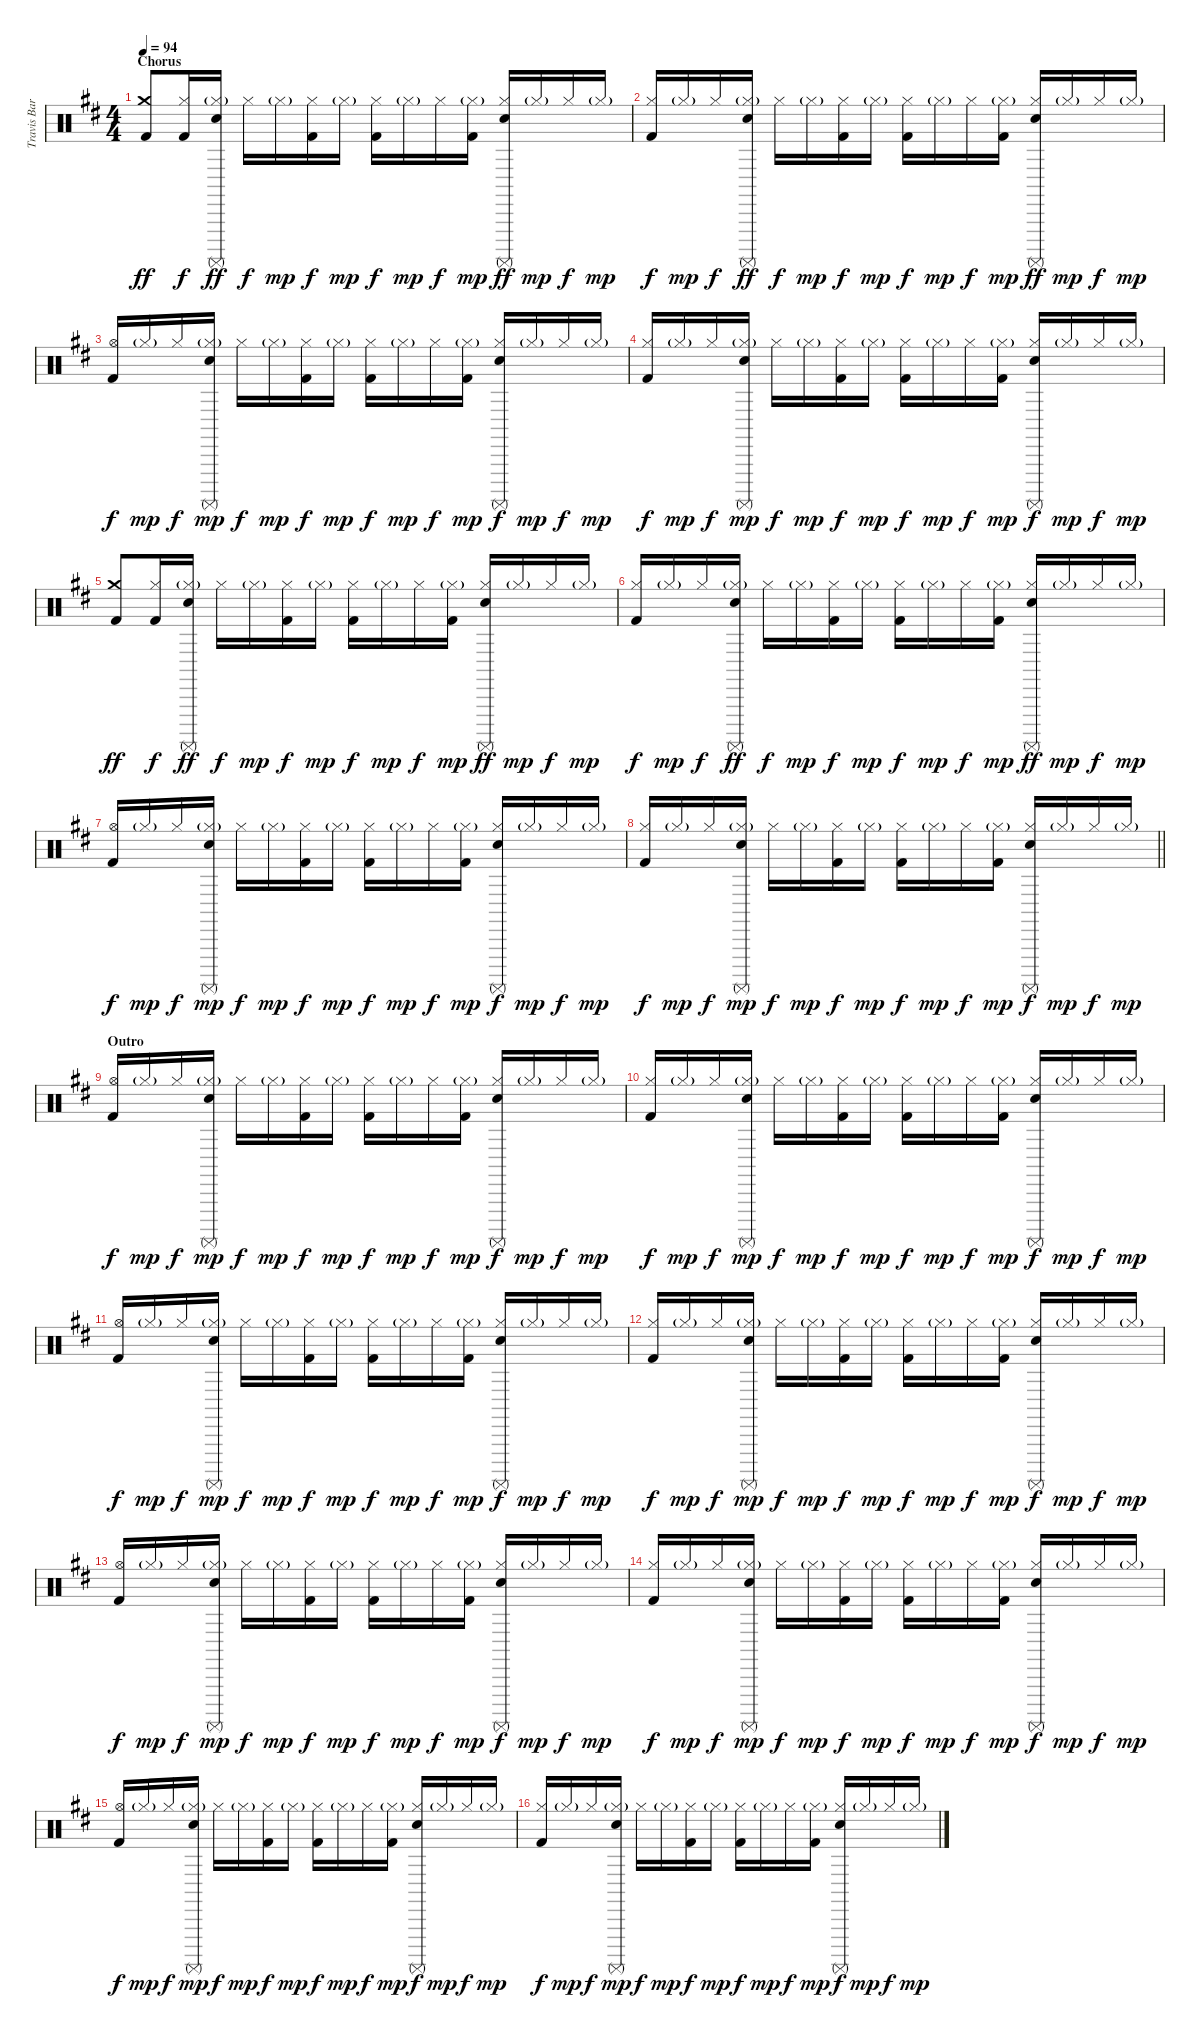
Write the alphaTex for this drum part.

\track ("Travis Barker" "Travis Bar") {instrument percussion}
\staff {score}
\articulation defaults
\ts (4 4)
\section ("" "Chorus")
\tempo 94
\clef neutral
\ks d
("Crash medium (hit)" "Kick (hit) 2").8{dy ff} ("Hi-Hat (closed)" "Kick (hit) 2").16{dy f} ("Hi-Hat (closed)"{g} "Electric Snare (hit)" "Surdo (mute)").16{dy ff} "Hi-Hat (closed)".16{dy f} "Hi-Hat (closed)"{g}.16{dy mp} ("Hi-Hat (closed)" "Kick (hit) 2").16{dy f} "Hi-Hat (closed)"{g}.16{dy mp} ("Hi-Hat (closed)" "Kick (hit) 2").16{dy f} "Hi-Hat (closed)"{g}.16{dy mp} "Hi-Hat (closed)".16{dy f} ("Hi-Hat (closed)"{g} "Kick (hit) 2").16{dy mp} ("Hi-Hat (closed)" "Electric Snare (hit)" "Surdo (mute)").16{dy ff} "Hi-Hat (closed)"{g}.16{dy mp} "Hi-Hat (closed)".16{dy f} "Hi-Hat (closed)"{g}.16{dy mp} |
("Hi-Hat (closed)" "Kick (hit) 2").16{dy f} "Hi-Hat (closed)"{g}.16{dy mp} "Hi-Hat (closed)".16{dy f} ("Hi-Hat (closed)"{g} "Electric Snare (hit)" "Surdo (mute)").16{dy ff} "Hi-Hat (closed)".16{dy f} "Hi-Hat (closed)"{g}.16{dy mp} ("Hi-Hat (closed)" "Kick (hit) 2").16{dy f} "Hi-Hat (closed)"{g}.16{dy mp} ("Hi-Hat (closed)" "Kick (hit) 2").16{dy f} "Hi-Hat (closed)"{g}.16{dy mp} "Hi-Hat (closed)".16{dy f} ("Hi-Hat (closed)"{g} "Kick (hit) 2").16{dy mp} ("Hi-Hat (closed)" "Electric Snare (hit)" "Surdo (mute)").16{dy ff} "Hi-Hat (closed)"{g}.16{dy mp} "Hi-Hat (closed)".16{dy f} "Hi-Hat (closed)"{g}.16{dy mp} |
("Hi-Hat (open)" "Kick (hit) 2").16{dy f} "Hi-Hat (closed)"{g}.16{dy mp} "Hi-Hat (closed)".16{dy f} ("Hi-Hat (closed)"{g} "Electric Snare (hit)" "Surdo (mute)").16{dy mp} "Hi-Hat (closed)".16{dy f} "Hi-Hat (closed)"{g}.16{dy mp} ("Hi-Hat (closed)" "Kick (hit) 2").16{dy f} "Hi-Hat (closed)"{g}.16{dy mp} ("Hi-Hat (closed)" "Kick (hit) 2").16{dy f} "Hi-Hat (closed)"{g}.16{dy mp} "Hi-Hat (closed)".16{dy f} ("Hi-Hat (closed)"{g} "Kick (hit) 2").16{dy mp} ("Hi-Hat (closed)" "Electric Snare (hit)" "Surdo (mute)").16{dy f} "Hi-Hat (closed)"{g}.16{dy mp} "Hi-Hat (closed)".16{dy f} "Hi-Hat (closed)"{g}.16{dy mp} |
("Hi-Hat (closed)" "Kick (hit) 2").16{dy f} "Hi-Hat (closed)"{g}.16{dy mp} "Hi-Hat (closed)".16{dy f} ("Hi-Hat (closed)"{g} "Electric Snare (hit)" "Surdo (mute)").16{dy mp} "Hi-Hat (closed)".16{dy f} "Hi-Hat (closed)"{g}.16{dy mp} ("Hi-Hat (closed)" "Kick (hit) 2").16{dy f} "Hi-Hat (closed)"{g}.16{dy mp} ("Hi-Hat (closed)" "Kick (hit) 2").16{dy f} "Hi-Hat (closed)"{g}.16{dy mp} "Hi-Hat (closed)".16{dy f} ("Hi-Hat (closed)"{g} "Kick (hit) 2").16{dy mp} ("Hi-Hat (closed)" "Electric Snare (hit)" "Surdo (mute)").16{dy f} "Hi-Hat (closed)"{g}.16{dy mp} "Hi-Hat (closed)".16{dy f} "Hi-Hat (closed)"{g}.16{dy mp} |
("Crash medium (hit)" "Kick (hit) 2").8{dy ff} ("Hi-Hat (closed)" "Kick (hit) 2").16{dy f} ("Hi-Hat (closed)"{g} "Electric Snare (hit)" "Surdo (mute)").16{dy ff} "Hi-Hat (closed)".16{dy f} "Hi-Hat (closed)"{g}.16{dy mp} ("Hi-Hat (closed)" "Kick (hit) 2").16{dy f} "Hi-Hat (closed)"{g}.16{dy mp} ("Hi-Hat (closed)" "Kick (hit) 2").16{dy f} "Hi-Hat (closed)"{g}.16{dy mp} "Hi-Hat (closed)".16{dy f} ("Hi-Hat (closed)"{g} "Kick (hit) 2").16{dy mp} ("Hi-Hat (closed)" "Electric Snare (hit)" "Surdo (mute)").16{dy ff} "Hi-Hat (closed)"{g}.16{dy mp} "Hi-Hat (closed)".16{dy f} "Hi-Hat (closed)"{g}.16{dy mp} |
("Hi-Hat (closed)" "Kick (hit) 2").16{dy f} "Hi-Hat (closed)"{g}.16{dy mp} "Hi-Hat (closed)".16{dy f} ("Hi-Hat (closed)"{g} "Electric Snare (hit)" "Surdo (mute)").16{dy ff} "Hi-Hat (closed)".16{dy f} "Hi-Hat (closed)"{g}.16{dy mp} ("Hi-Hat (closed)" "Kick (hit) 2").16{dy f} "Hi-Hat (closed)"{g}.16{dy mp} ("Hi-Hat (closed)" "Kick (hit) 2").16{dy f} "Hi-Hat (closed)"{g}.16{dy mp} "Hi-Hat (closed)".16{dy f} ("Hi-Hat (closed)"{g} "Kick (hit) 2").16{dy mp} ("Hi-Hat (closed)" "Electric Snare (hit)" "Surdo (mute)").16{dy ff} "Hi-Hat (closed)"{g}.16{dy mp} "Hi-Hat (closed)".16{dy f} "Hi-Hat (closed)"{g}.16{dy mp} |
("Hi-Hat (open)" "Kick (hit) 2").16{dy f} "Hi-Hat (closed)"{g}.16{dy mp} "Hi-Hat (closed)".16{dy f} ("Hi-Hat (closed)"{g} "Electric Snare (hit)" "Surdo (mute)").16{dy mp} "Hi-Hat (closed)".16{dy f} "Hi-Hat (closed)"{g}.16{dy mp} ("Hi-Hat (closed)" "Kick (hit) 2").16{dy f} "Hi-Hat (closed)"{g}.16{dy mp} ("Hi-Hat (closed)" "Kick (hit) 2").16{dy f} "Hi-Hat (closed)"{g}.16{dy mp} "Hi-Hat (closed)".16{dy f} ("Hi-Hat (closed)"{g} "Kick (hit) 2").16{dy mp} ("Hi-Hat (closed)" "Electric Snare (hit)" "Surdo (mute)").16{dy f} "Hi-Hat (closed)"{g}.16{dy mp} "Hi-Hat (closed)".16{dy f} "Hi-Hat (closed)"{g}.16{dy mp} |
\barLineRight lightlight
("Hi-Hat (closed)" "Kick (hit) 2").16{dy f} "Hi-Hat (closed)"{g}.16{dy mp} "Hi-Hat (closed)".16{dy f} ("Hi-Hat (closed)"{g} "Electric Snare (hit)" "Surdo (mute)").16{dy mp} "Hi-Hat (closed)".16{dy f} "Hi-Hat (closed)"{g}.16{dy mp} ("Hi-Hat (closed)" "Kick (hit) 2").16{dy f} "Hi-Hat (closed)"{g}.16{dy mp} ("Hi-Hat (closed)" "Kick (hit) 2").16{dy f} "Hi-Hat (closed)"{g}.16{dy mp} "Hi-Hat (closed)".16{dy f} ("Hi-Hat (closed)"{g} "Kick (hit) 2").16{dy mp} ("Hi-Hat (closed)" "Electric Snare (hit)" "Surdo (mute)").16{dy f} "Hi-Hat (closed)"{g}.16{dy mp} "Hi-Hat (closed)".16{dy f} "Hi-Hat (closed)"{g}.16{dy mp} |
\section ("" "Outro")
("Hi-Hat (open)" "Kick (hit) 2").16{dy f} "Hi-Hat (closed)"{g}.16{dy mp} "Hi-Hat (closed)".16{dy f} ("Hi-Hat (closed)"{g} "Electric Snare (hit)" "Surdo (mute)").16{dy mp} "Hi-Hat (closed)".16{dy f} "Hi-Hat (closed)"{g}.16{dy mp} ("Hi-Hat (closed)" "Kick (hit) 2").16{dy f} "Hi-Hat (closed)"{g}.16{dy mp} ("Hi-Hat (closed)" "Kick (hit) 2").16{dy f} "Hi-Hat (closed)"{g}.16{dy mp} "Hi-Hat (closed)".16{dy f} ("Hi-Hat (closed)"{g} "Kick (hit) 2").16{dy mp} ("Hi-Hat (closed)" "Electric Snare (hit)" "Surdo (mute)").16{dy f} "Hi-Hat (closed)"{g}.16{dy mp} "Hi-Hat (closed)".16{dy f} "Hi-Hat (closed)"{g}.16{dy mp} |
("Hi-Hat (closed)" "Kick (hit) 2").16{dy f} "Hi-Hat (closed)"{g}.16{dy mp} "Hi-Hat (closed)".16{dy f} ("Hi-Hat (closed)"{g} "Electric Snare (hit)" "Surdo (mute)").16{dy mp} "Hi-Hat (closed)".16{dy f} "Hi-Hat (closed)"{g}.16{dy mp} ("Hi-Hat (closed)" "Kick (hit) 2").16{dy f} "Hi-Hat (closed)"{g}.16{dy mp} ("Hi-Hat (closed)" "Kick (hit) 2").16{dy f} "Hi-Hat (closed)"{g}.16{dy mp} "Hi-Hat (closed)".16{dy f} ("Hi-Hat (closed)"{g} "Kick (hit) 2").16{dy mp} ("Hi-Hat (closed)" "Electric Snare (hit)" "Surdo (mute)").16{dy f} "Hi-Hat (closed)"{g}.16{dy mp} "Hi-Hat (closed)".16{dy f} "Hi-Hat (closed)"{g}.16{dy mp} |
("Hi-Hat (open)" "Kick (hit) 2").16{dy f} "Hi-Hat (closed)"{g}.16{dy mp} "Hi-Hat (closed)".16{dy f} ("Hi-Hat (closed)"{g} "Electric Snare (hit)" "Surdo (mute)").16{dy mp} "Hi-Hat (closed)".16{dy f} "Hi-Hat (closed)"{g}.16{dy mp} ("Hi-Hat (closed)" "Kick (hit) 2").16{dy f} "Hi-Hat (closed)"{g}.16{dy mp} ("Hi-Hat (closed)" "Kick (hit) 2").16{dy f} "Hi-Hat (closed)"{g}.16{dy mp} "Hi-Hat (closed)".16{dy f} ("Hi-Hat (closed)"{g} "Kick (hit) 2").16{dy mp} ("Hi-Hat (closed)" "Electric Snare (hit)" "Surdo (mute)").16{dy f} "Hi-Hat (closed)"{g}.16{dy mp} "Hi-Hat (closed)".16{dy f} "Hi-Hat (closed)"{g}.16{dy mp} |
("Hi-Hat (closed)" "Kick (hit) 2").16{dy f} "Hi-Hat (closed)"{g}.16{dy mp} "Hi-Hat (closed)".16{dy f} ("Hi-Hat (closed)"{g} "Electric Snare (hit)" "Surdo (mute)").16{dy mp} "Hi-Hat (closed)".16{dy f} "Hi-Hat (closed)"{g}.16{dy mp} ("Hi-Hat (closed)" "Kick (hit) 2").16{dy f} "Hi-Hat (closed)"{g}.16{dy mp} ("Hi-Hat (closed)" "Kick (hit) 2").16{dy f} "Hi-Hat (closed)"{g}.16{dy mp} "Hi-Hat (closed)".16{dy f} ("Hi-Hat (closed)"{g} "Kick (hit) 2").16{dy mp} ("Hi-Hat (closed)" "Electric Snare (hit)" "Surdo (mute)").16{dy f} "Hi-Hat (closed)"{g}.16{dy mp} "Hi-Hat (closed)".16{dy f} "Hi-Hat (closed)"{g}.16{dy mp} |
("Hi-Hat (open)" "Kick (hit) 2").16{dy f} "Hi-Hat (closed)"{g}.16{dy mp} "Hi-Hat (closed)".16{dy f} ("Hi-Hat (closed)"{g} "Electric Snare (hit)" "Surdo (mute)").16{dy mp} "Hi-Hat (closed)".16{dy f} "Hi-Hat (closed)"{g}.16{dy mp} ("Hi-Hat (closed)" "Kick (hit) 2").16{dy f} "Hi-Hat (closed)"{g}.16{dy mp} ("Hi-Hat (closed)" "Kick (hit) 2").16{dy f} "Hi-Hat (closed)"{g}.16{dy mp} "Hi-Hat (closed)".16{dy f} ("Hi-Hat (closed)"{g} "Kick (hit) 2").16{dy mp} ("Hi-Hat (closed)" "Electric Snare (hit)" "Surdo (mute)").16{dy f} "Hi-Hat (closed)"{g}.16{dy mp} "Hi-Hat (closed)".16{dy f} "Hi-Hat (closed)"{g}.16{dy mp} |
("Hi-Hat (closed)" "Kick (hit) 2").16{dy f} "Hi-Hat (closed)"{g}.16{dy mp} "Hi-Hat (closed)".16{dy f} ("Hi-Hat (closed)"{g} "Electric Snare (hit)" "Surdo (mute)").16{dy mp} "Hi-Hat (closed)".16{dy f} "Hi-Hat (closed)"{g}.16{dy mp} ("Hi-Hat (closed)" "Kick (hit) 2").16{dy f} "Hi-Hat (closed)"{g}.16{dy mp} ("Hi-Hat (closed)" "Kick (hit) 2").16{dy f} "Hi-Hat (closed)"{g}.16{dy mp} "Hi-Hat (closed)".16{dy f} ("Hi-Hat (closed)"{g} "Kick (hit) 2").16{dy mp} ("Hi-Hat (closed)" "Electric Snare (hit)" "Surdo (mute)").16{dy f} "Hi-Hat (closed)"{g}.16{dy mp} "Hi-Hat (closed)".16{dy f} "Hi-Hat (closed)"{g}.16{dy mp} |
("Hi-Hat (open)" "Kick (hit) 2").16{dy f} "Hi-Hat (closed)"{g}.16{dy mp} "Hi-Hat (closed)".16{dy f} ("Hi-Hat (closed)"{g} "Electric Snare (hit)" "Surdo (mute)").16{dy mp} "Hi-Hat (closed)".16{dy f} "Hi-Hat (closed)"{g}.16{dy mp} ("Hi-Hat (closed)" "Kick (hit) 2").16{dy f} "Hi-Hat (closed)"{g}.16{dy mp} ("Hi-Hat (closed)" "Kick (hit) 2").16{dy f} "Hi-Hat (closed)"{g}.16{dy mp} "Hi-Hat (closed)".16{dy f} ("Hi-Hat (closed)"{g} "Kick (hit) 2").16{dy mp} ("Hi-Hat (closed)" "Electric Snare (hit)" "Surdo (mute)").16{dy f} "Hi-Hat (closed)"{g}.16{dy mp} "Hi-Hat (closed)".16{dy f} "Hi-Hat (closed)"{g}.16{dy mp} |
("Hi-Hat (closed)" "Kick (hit) 2").16{dy f} "Hi-Hat (closed)"{g}.16{dy mp} "Hi-Hat (closed)".16{dy f} ("Hi-Hat (closed)"{g} "Electric Snare (hit)" "Surdo (mute)").16{dy mp} "Hi-Hat (closed)".16{dy f} "Hi-Hat (closed)"{g}.16{dy mp} ("Hi-Hat (closed)" "Kick (hit) 2").16{dy f} "Hi-Hat (closed)"{g}.16{dy mp} ("Hi-Hat (closed)" "Kick (hit) 2").16{dy f} "Hi-Hat (closed)"{g}.16{dy mp} "Hi-Hat (closed)".16{dy f} ("Hi-Hat (closed)"{g} "Kick (hit) 2").16{dy mp} ("Hi-Hat (closed)" "Electric Snare (hit)" "Surdo (mute)").16{dy f} "Hi-Hat (closed)"{g}.16{dy mp} "Hi-Hat (closed)".16{dy f} "Hi-Hat (closed)"{g}.16{dy mp}
